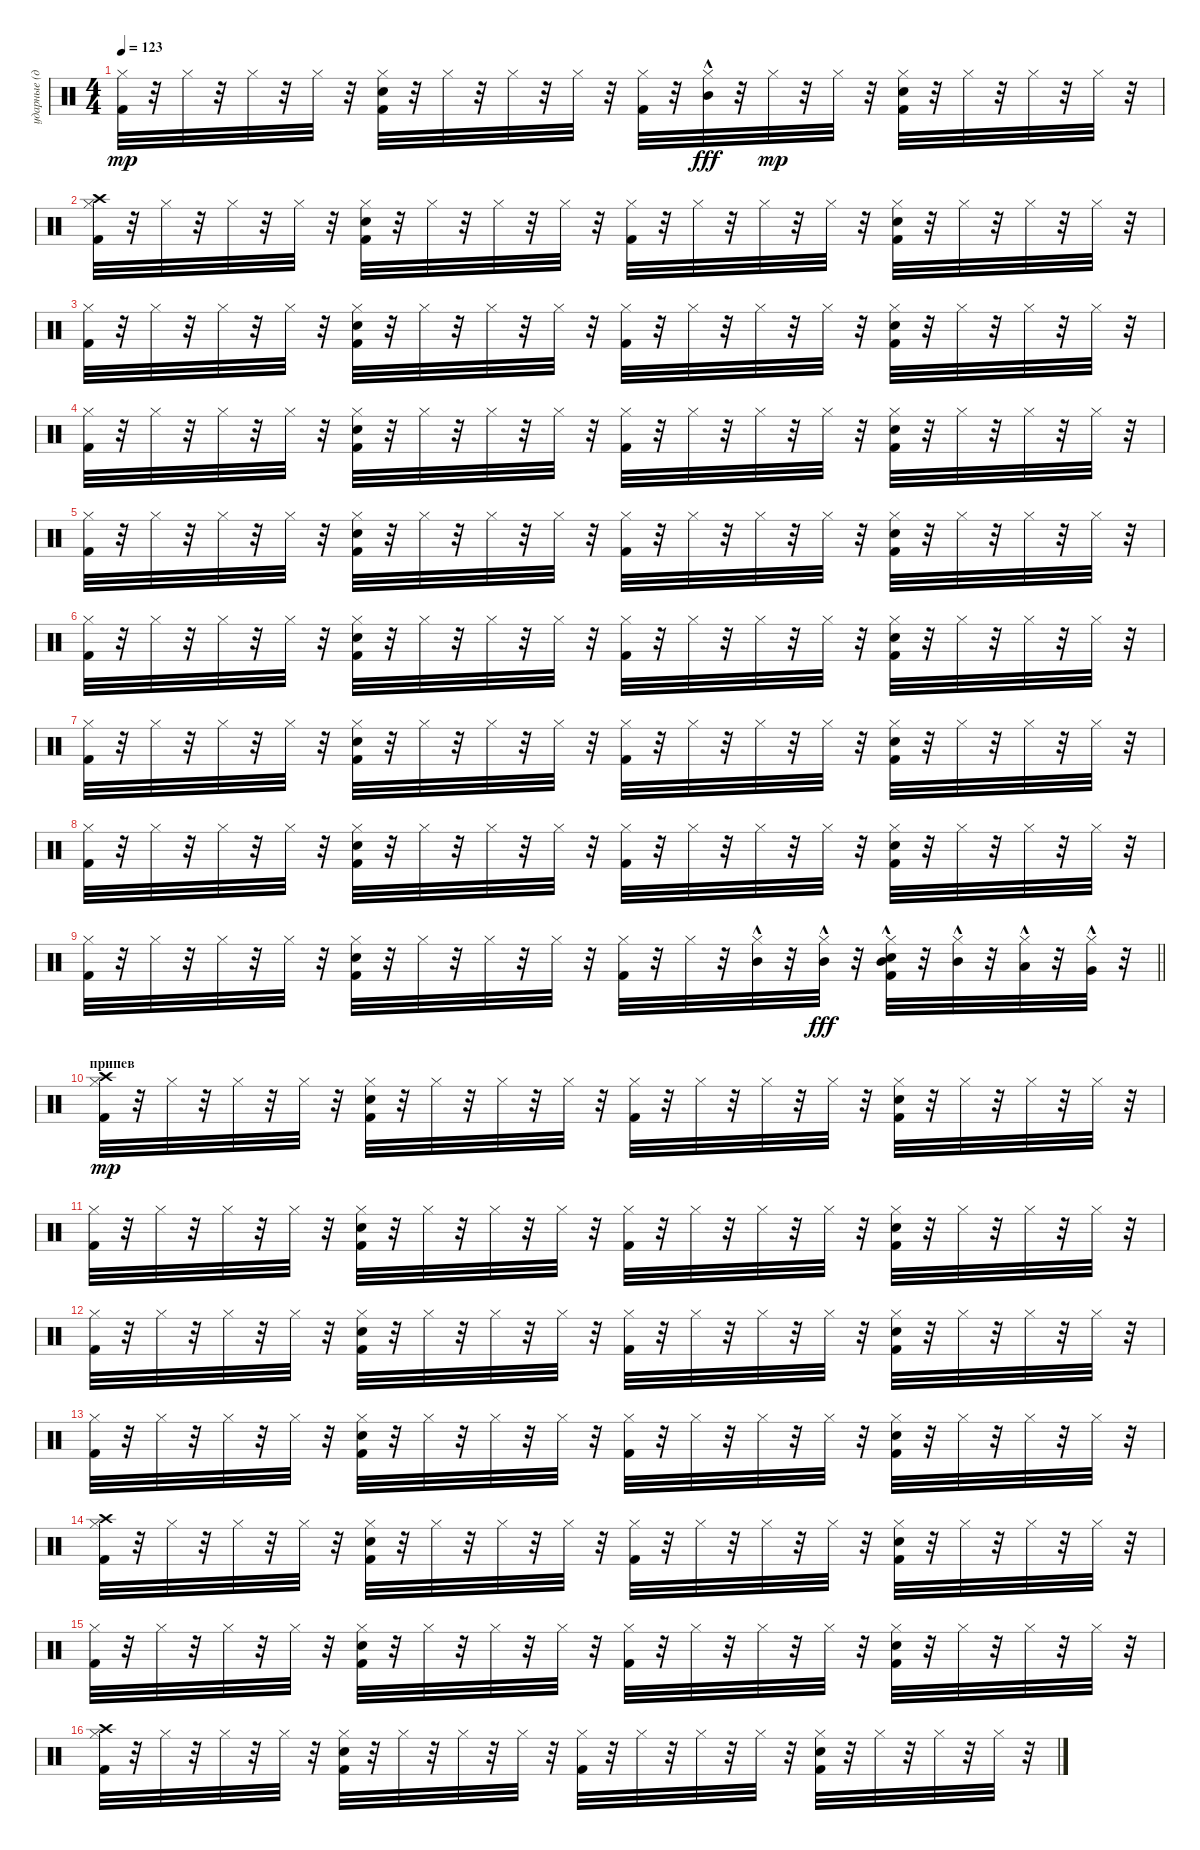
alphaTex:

\track ("ударные (драм-машина)" "ударные (д") {instrument percussion}
\staff {score}
\articulation defaults
\ts (4 4)
\tempo 123
\clef neutral
\ks c
("Kick (hit) 2" "Hi-Hat (closed)").32{dy mp} r.32 "Hi-Hat (closed)".32 r.32 "Hi-Hat (closed)".32 r.32 "Hi-Hat (closed)".32 r.32 ("Kick (hit) 2" "Snare (hit) 2" "Hi-Hat (closed)").32 r.32 "Hi-Hat (closed)".32 r.32 "Hi-Hat (closed)".32 r.32 "Hi-Hat (closed)".32 r.32 ("Kick (hit) 2" "Hi-Hat (closed)").32 r.32 ("Hi-Hat (closed)" "Mid Tom (hit)"{hac}).32{dy fff} r.32 "Hi-Hat (closed)".32{dy mp} r.32 "Hi-Hat (closed)".32 r.32 ("Kick (hit) 2" "Snare (hit) 2" "Hi-Hat (closed)").32 r.32 "Hi-Hat (closed)".32 r.32 "Hi-Hat (closed)".32 r.32 "Hi-Hat (closed)".32 r.32 |
("Crash high (hit)" "Kick (hit) 2" "Hi-Hat (closed)").32 r.32 "Hi-Hat (closed)".32 r.32 "Hi-Hat (closed)".32 r.32 "Hi-Hat (closed)".32 r.32 ("Kick (hit) 2" "Snare (hit) 2" "Hi-Hat (closed)").32 r.32 "Hi-Hat (closed)".32 r.32 "Hi-Hat (closed)".32 r.32 "Hi-Hat (closed)".32 r.32 ("Kick (hit) 2" "Hi-Hat (closed)").32 r.32 "Hi-Hat (closed)".32 r.32 "Hi-Hat (closed)".32 r.32 "Hi-Hat (closed)".32 r.32 ("Kick (hit) 2" "Snare (hit) 2" "Hi-Hat (closed)").32 r.32 "Hi-Hat (closed)".32 r.32 "Hi-Hat (closed)".32 r.32 "Hi-Hat (closed)".32 r.32 |
("Kick (hit) 2" "Hi-Hat (closed)").32 r.32 "Hi-Hat (closed)".32 r.32 "Hi-Hat (closed)".32 r.32 "Hi-Hat (closed)".32 r.32 ("Kick (hit) 2" "Snare (hit) 2" "Hi-Hat (closed)").32 r.32 "Hi-Hat (closed)".32 r.32 "Hi-Hat (closed)".32 r.32 "Hi-Hat (closed)".32 r.32 ("Kick (hit) 2" "Hi-Hat (closed)").32 r.32 "Hi-Hat (closed)".32 r.32 "Hi-Hat (closed)".32 r.32 "Hi-Hat (closed)".32 r.32 ("Kick (hit) 2" "Snare (hit) 2" "Hi-Hat (closed)").32 r.32 "Hi-Hat (closed)".32 r.32 "Hi-Hat (closed)".32 r.32 "Hi-Hat (closed)".32 r.32 |
("Kick (hit) 2" "Hi-Hat (closed)").32 r.32 "Hi-Hat (closed)".32 r.32 "Hi-Hat (closed)".32 r.32 "Hi-Hat (closed)".32 r.32 ("Kick (hit) 2" "Snare (hit) 2" "Hi-Hat (closed)").32 r.32 "Hi-Hat (closed)".32 r.32 "Hi-Hat (closed)".32 r.32 "Hi-Hat (closed)".32 r.32 ("Kick (hit) 2" "Hi-Hat (closed)").32 r.32 "Hi-Hat (closed)".32 r.32 "Hi-Hat (closed)".32 r.32 "Hi-Hat (closed)".32 r.32 ("Kick (hit) 2" "Snare (hit) 2" "Hi-Hat (closed)").32 r.32 "Hi-Hat (closed)".32 r.32 "Hi-Hat (closed)".32 r.32 "Hi-Hat (closed)".32 r.32 |
("Kick (hit) 2" "Hi-Hat (closed)").32 r.32 "Hi-Hat (closed)".32 r.32 "Hi-Hat (closed)".32 r.32 "Hi-Hat (closed)".32 r.32 ("Kick (hit) 2" "Snare (hit) 2" "Hi-Hat (closed)").32 r.32 "Hi-Hat (closed)".32 r.32 "Hi-Hat (closed)".32 r.32 "Hi-Hat (closed)".32 r.32 ("Kick (hit) 2" "Hi-Hat (closed)").32 r.32 "Hi-Hat (closed)".32 r.32 "Hi-Hat (closed)".32 r.32 "Hi-Hat (closed)".32 r.32 ("Kick (hit) 2" "Snare (hit) 2" "Hi-Hat (closed)").32 r.32 "Hi-Hat (closed)".32 r.32 "Hi-Hat (closed)".32 r.32 "Hi-Hat (closed)".32 r.32 |
("Kick (hit) 2" "Hi-Hat (closed)").32 r.32 "Hi-Hat (closed)".32 r.32 "Hi-Hat (closed)".32 r.32 "Hi-Hat (closed)".32 r.32 ("Kick (hit) 2" "Snare (hit) 2" "Hi-Hat (closed)").32 r.32 "Hi-Hat (closed)".32 r.32 "Hi-Hat (closed)".32 r.32 "Hi-Hat (closed)".32 r.32 ("Kick (hit) 2" "Hi-Hat (closed)").32 r.32 "Hi-Hat (closed)".32 r.32 "Hi-Hat (closed)".32 r.32 "Hi-Hat (closed)".32 r.32 ("Kick (hit) 2" "Snare (hit) 2" "Hi-Hat (closed)").32 r.32 "Hi-Hat (closed)".32 r.32 "Hi-Hat (closed)".32 r.32 "Hi-Hat (closed)".32 r.32 |
("Kick (hit) 2" "Hi-Hat (closed)").32 r.32 "Hi-Hat (closed)".32 r.32 "Hi-Hat (closed)".32 r.32 "Hi-Hat (closed)".32 r.32 ("Kick (hit) 2" "Snare (hit) 2" "Hi-Hat (closed)").32 r.32 "Hi-Hat (closed)".32 r.32 "Hi-Hat (closed)".32 r.32 "Hi-Hat (closed)".32 r.32 ("Kick (hit) 2" "Hi-Hat (closed)").32 r.32 "Hi-Hat (closed)".32 r.32 "Hi-Hat (closed)".32 r.32 "Hi-Hat (closed)".32 r.32 ("Kick (hit) 2" "Snare (hit) 2" "Hi-Hat (closed)").32 r.32 "Hi-Hat (closed)".32 r.32 "Hi-Hat (closed)".32 r.32 "Hi-Hat (closed)".32 r.32 |
("Kick (hit) 2" "Hi-Hat (closed)").32 r.32 "Hi-Hat (closed)".32 r.32 "Hi-Hat (closed)".32 r.32 "Hi-Hat (closed)".32 r.32 ("Kick (hit) 2" "Snare (hit) 2" "Hi-Hat (closed)").32 r.32 "Hi-Hat (closed)".32 r.32 "Hi-Hat (closed)".32 r.32 "Hi-Hat (closed)".32 r.32 ("Kick (hit) 2" "Hi-Hat (closed)").32 r.32 "Hi-Hat (closed)".32 r.32 "Hi-Hat (closed)".32 r.32 "Hi-Hat (closed)".32 r.32 ("Kick (hit) 2" "Snare (hit) 2" "Hi-Hat (closed)").32 r.32 "Hi-Hat (closed)".32 r.32 "Hi-Hat (closed)".32 r.32 "Hi-Hat (closed)".32 r.32 |
\barLineRight lightlight
("Kick (hit) 2" "Hi-Hat (closed)").32 r.32 "Hi-Hat (closed)".32 r.32 "Hi-Hat (closed)".32 r.32 "Hi-Hat (closed)".32 r.32 ("Kick (hit) 2" "Snare (hit) 2" "Hi-Hat (closed)").32 r.32 "Hi-Hat (closed)".32 r.32 "Hi-Hat (closed)".32 r.32 "Hi-Hat (closed)".32 r.32 ("Kick (hit) 2" "Hi-Hat (closed)").32 r.32 "Hi-Hat (closed)".32 r.32 ("Mid Tom (hit)"{hac} "Hi-Hat (closed)").32 r.32 ("Hi-Hat (closed)" "Mid Tom (hit)"{hac}).32{dy fff} r.32 ("Kick (hit) 2" "Snare (hit) 2" "Hi-Hat (closed)" "Mid Tom (hit)"{hac}).32 r.32 ("Hi-Hat (closed)" "Mid Tom (hit)"{hac}).32 r.32 ("Hi-Hat (closed)" "Low Tom (hit)"{hac}).32 r.32 ("Hi-Hat (closed)" "Very Low Tom (hit)"{hac}).32 r.32 |
\section ("" "припев")
("Crash high (hit)" "Kick (hit) 2" "Hi-Hat (closed)").32{dy mp} r.32 "Hi-Hat (closed)".32 r.32 "Hi-Hat (closed)".32 r.32 "Hi-Hat (closed)".32 r.32 ("Kick (hit) 2" "Snare (hit) 2" "Hi-Hat (closed)").32 r.32 "Hi-Hat (closed)".32 r.32 "Hi-Hat (closed)".32 r.32 "Hi-Hat (closed)".32 r.32 ("Kick (hit) 2" "Hi-Hat (closed)").32 r.32 "Hi-Hat (closed)".32 r.32 "Hi-Hat (closed)".32 r.32 "Hi-Hat (closed)".32 r.32 ("Kick (hit) 2" "Snare (hit) 2" "Hi-Hat (closed)").32 r.32 "Hi-Hat (closed)".32 r.32 "Hi-Hat (closed)".32 r.32 "Hi-Hat (closed)".32 r.32 |
("Kick (hit) 2" "Hi-Hat (closed)").32 r.32 "Hi-Hat (closed)".32 r.32 "Hi-Hat (closed)".32 r.32 "Hi-Hat (closed)".32 r.32 ("Kick (hit) 2" "Snare (hit) 2" "Hi-Hat (closed)").32 r.32 "Hi-Hat (closed)".32 r.32 "Hi-Hat (closed)".32 r.32 "Hi-Hat (closed)".32 r.32 ("Kick (hit) 2" "Hi-Hat (closed)").32 r.32 "Hi-Hat (closed)".32 r.32 "Hi-Hat (closed)".32 r.32 "Hi-Hat (closed)".32 r.32 ("Kick (hit) 2" "Snare (hit) 2" "Hi-Hat (closed)").32 r.32 "Hi-Hat (closed)".32 r.32 "Hi-Hat (closed)".32 r.32 "Hi-Hat (closed)".32 r.32 |
("Kick (hit) 2" "Hi-Hat (closed)").32 r.32 "Hi-Hat (closed)".32 r.32 "Hi-Hat (closed)".32 r.32 "Hi-Hat (closed)".32 r.32 ("Kick (hit) 2" "Snare (hit) 2" "Hi-Hat (closed)").32 r.32 "Hi-Hat (closed)".32 r.32 "Hi-Hat (closed)".32 r.32 "Hi-Hat (closed)".32 r.32 ("Kick (hit) 2" "Hi-Hat (closed)").32 r.32 "Hi-Hat (closed)".32 r.32 "Hi-Hat (closed)".32 r.32 "Hi-Hat (closed)".32 r.32 ("Kick (hit) 2" "Snare (hit) 2" "Hi-Hat (closed)").32 r.32 "Hi-Hat (closed)".32 r.32 "Hi-Hat (closed)".32 r.32 "Hi-Hat (closed)".32 r.32 |
("Kick (hit) 2" "Hi-Hat (closed)").32 r.32 "Hi-Hat (closed)".32 r.32 "Hi-Hat (closed)".32 r.32 "Hi-Hat (closed)".32 r.32 ("Kick (hit) 2" "Snare (hit) 2" "Hi-Hat (closed)").32 r.32 "Hi-Hat (closed)".32 r.32 "Hi-Hat (closed)".32 r.32 "Hi-Hat (closed)".32 r.32 ("Kick (hit) 2" "Hi-Hat (closed)").32 r.32 "Hi-Hat (closed)".32 r.32 "Hi-Hat (closed)".32 r.32 "Hi-Hat (closed)".32 r.32 ("Kick (hit) 2" "Snare (hit) 2" "Hi-Hat (closed)").32 r.32 "Hi-Hat (closed)".32 r.32 "Hi-Hat (closed)".32 r.32 "Hi-Hat (closed)".32 r.32 |
("Kick (hit) 2" "Hi-Hat (closed)" "Crash high (hit)").32 r.32 "Hi-Hat (closed)".32 r.32 "Hi-Hat (closed)".32 r.32 "Hi-Hat (closed)".32 r.32 ("Kick (hit) 2" "Snare (hit) 2" "Hi-Hat (closed)").32 r.32 "Hi-Hat (closed)".32 r.32 "Hi-Hat (closed)".32 r.32 "Hi-Hat (closed)".32 r.32 ("Kick (hit) 2" "Hi-Hat (closed)").32 r.32 "Hi-Hat (closed)".32 r.32 "Hi-Hat (closed)".32 r.32 "Hi-Hat (closed)".32 r.32 ("Kick (hit) 2" "Snare (hit) 2" "Hi-Hat (closed)").32 r.32 "Hi-Hat (closed)".32 r.32 "Hi-Hat (closed)".32 r.32 "Hi-Hat (closed)".32 r.32 |
("Kick (hit) 2" "Hi-Hat (closed)").32 r.32 "Hi-Hat (closed)".32 r.32 "Hi-Hat (closed)".32 r.32 "Hi-Hat (closed)".32 r.32 ("Kick (hit) 2" "Snare (hit) 2" "Hi-Hat (closed)").32 r.32 "Hi-Hat (closed)".32 r.32 "Hi-Hat (closed)".32 r.32 "Hi-Hat (closed)".32 r.32 ("Kick (hit) 2" "Hi-Hat (closed)").32 r.32 "Hi-Hat (closed)".32 r.32 "Hi-Hat (closed)".32 r.32 "Hi-Hat (closed)".32 r.32 ("Kick (hit) 2" "Snare (hit) 2" "Hi-Hat (closed)").32 r.32 "Hi-Hat (closed)".32 r.32 "Hi-Hat (closed)".32 r.32 "Hi-Hat (closed)".32 r.32 |
("Kick (hit) 2" "Hi-Hat (closed)" "Crash high (hit)").32 r.32 "Hi-Hat (closed)".32 r.32 "Hi-Hat (closed)".32 r.32 "Hi-Hat (closed)".32 r.32 ("Kick (hit) 2" "Snare (hit) 2" "Hi-Hat (closed)").32 r.32 "Hi-Hat (closed)".32 r.32 "Hi-Hat (closed)".32 r.32 "Hi-Hat (closed)".32 r.32 ("Kick (hit) 2" "Hi-Hat (closed)").32 r.32 "Hi-Hat (closed)".32 r.32 "Hi-Hat (closed)".32 r.32 "Hi-Hat (closed)".32 r.32 ("Kick (hit) 2" "Snare (hit) 2" "Hi-Hat (closed)").32 r.32 "Hi-Hat (closed)".32 r.32 "Hi-Hat (closed)".32 r.32 "Hi-Hat (closed)".32 r.32
